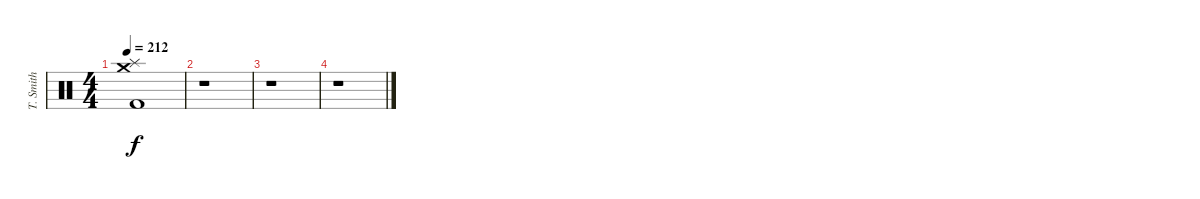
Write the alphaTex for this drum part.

\track ("T. Smith" "T. Smith") {instrument percussion}
\staff {score}
\articulation defaults
\ts (4 4)
\tempo 212
\clef neutral
\ks c
("Crash medium (hit)" "Splash (hit)" "Kick (hit) 2").1{dy f} |
r.1 |
r.1 |
r.1
